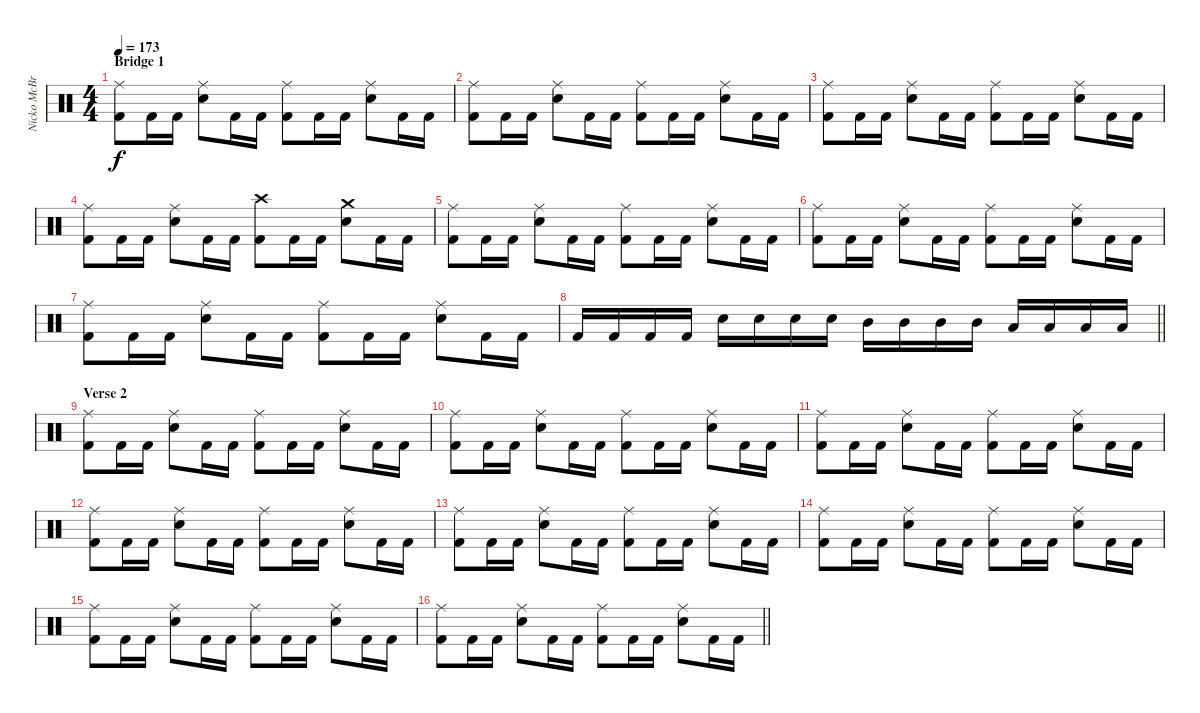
\track ("Nicko McBrain" "Nicko McBr") {instrument percussion}
\staff {score}
\articulation defaults
\ts (4 4)
\section ("" "Bridge 1")
\tempo 173
\clef neutral
\ks c
("Ride (middle)" "Kick (hit) 2").8{dy f} "Kick (hit) 2".16 "Kick (hit) 2".16 ("Ride (middle)" "Electric Snare (hit)").8 "Kick (hit) 2".16 "Kick (hit) 2".16 ("Ride (middle)" "Kick (hit) 2").8 "Kick (hit) 2".16 "Kick (hit) 2".16 ("Ride (middle)" "Electric Snare (hit)").8 "Kick (hit) 2".16 "Kick (hit) 2".16 |
("Ride (middle)" "Kick (hit) 2").8 "Kick (hit) 2".16 "Kick (hit) 2".16 ("Ride (middle)" "Electric Snare (hit)").8 "Kick (hit) 2".16 "Kick (hit) 2".16 ("Ride (middle)" "Kick (hit) 2").8 "Kick (hit) 2".16 "Kick (hit) 2".16 ("Ride (middle)" "Electric Snare (hit)").8 "Kick (hit) 2".16 "Kick (hit) 2".16 |
("Ride (middle)" "Kick (hit) 2").8 "Kick (hit) 2".16 "Kick (hit) 2".16 ("Ride (middle)" "Electric Snare (hit)").8 "Kick (hit) 2".16 "Kick (hit) 2".16 ("Ride (middle)" "Kick (hit) 2").8 "Kick (hit) 2".16 "Kick (hit) 2".16 ("Ride (middle)" "Electric Snare (hit)").8 "Kick (hit) 2".16 "Kick (hit) 2".16 |
("Ride (middle)" "Kick (hit) 2").8 "Kick (hit) 2".16 "Kick (hit) 2".16 ("Ride (middle)" "Electric Snare (hit)").8 "Kick (hit) 2".16 "Kick (hit) 2".16 ("Crash high (hit)" "Kick (hit) 2").8 "Kick (hit) 2".16 "Kick (hit) 2".16 ("Crash medium (hit)" "Electric Snare (hit)").8 "Kick (hit) 2".16 "Kick (hit) 2".16 |
("Ride (middle)" "Kick (hit) 2").8 "Kick (hit) 2".16 "Kick (hit) 2".16 ("Ride (middle)" "Electric Snare (hit)").8 "Kick (hit) 2".16 "Kick (hit) 2".16 ("Ride (middle)" "Kick (hit) 2").8 "Kick (hit) 2".16 "Kick (hit) 2".16 ("Ride (middle)" "Electric Snare (hit)").8 "Kick (hit) 2".16 "Kick (hit) 2".16 |
("Ride (middle)" "Kick (hit) 2").8 "Kick (hit) 2".16 "Kick (hit) 2".16 ("Ride (middle)" "Electric Snare (hit)").8 "Kick (hit) 2".16 "Kick (hit) 2".16 ("Ride (middle)" "Kick (hit) 2").8 "Kick (hit) 2".16 "Kick (hit) 2".16 ("Ride (middle)" "Electric Snare (hit)").8 "Kick (hit) 2".16 "Kick (hit) 2".16 |
("Ride (middle)" "Kick (hit) 2").8 "Kick (hit) 2".16 "Kick (hit) 2".16 ("Ride (middle)" "Electric Snare (hit)").8 "Kick (hit) 2".16 "Kick (hit) 2".16 ("Ride (middle)" "Kick (hit) 2").8 "Kick (hit) 2".16 "Kick (hit) 2".16 ("Ride (middle)" "Electric Snare (hit)").8 "Kick (hit) 2".16 "Kick (hit) 2".16 |
\barLineRight lightlight "Kick (hit) 2".16 "Kick (hit) 2".16 "Kick (hit) 2".16 "Kick (hit) 2".16 "Electric Snare (hit)".16 "Electric Snare (hit)".16 "Electric Snare (hit)".16 "Electric Snare (hit)".16 "Mid Tom (hit)".16 "Mid Tom (hit)".16 "Mid Tom (hit)".16 "Mid Tom (hit)".16 "Low Tom (hit)".16 "Low Tom (hit)".16 "Low Tom (hit)".16 "Low Tom (hit)".16
|
\section ("" "Verse 2")
("Ride (middle)" "Kick (hit) 2").8 "Kick (hit) 2".16 "Kick (hit) 2".16 ("Ride (middle)" "Electric Snare (hit)").8 "Kick (hit) 2".16 "Kick (hit) 2".16 ("Ride (middle)" "Kick (hit) 2").8 "Kick (hit) 2".16 "Kick (hit) 2".16 ("Ride (middle)" "Electric Snare (hit)").8 "Kick (hit) 2".16 "Kick (hit) 2".16 |
("Ride (middle)" "Kick (hit) 2").8 "Kick (hit) 2".16 "Kick (hit) 2".16 ("Ride (middle)" "Electric Snare (hit)").8 "Kick (hit) 2".16 "Kick (hit) 2".16 ("Ride (middle)" "Kick (hit) 2").8 "Kick (hit) 2".16 "Kick (hit) 2".16 ("Ride (middle)" "Electric Snare (hit)").8 "Kick (hit) 2".16 "Kick (hit) 2".16 |
("Ride (middle)" "Kick (hit) 2").8 "Kick (hit) 2".16 "Kick (hit) 2".16 ("Ride (middle)" "Electric Snare (hit)").8 "Kick (hit) 2".16 "Kick (hit) 2".16 ("Ride (middle)" "Kick (hit) 2").8 "Kick (hit) 2".16 "Kick (hit) 2".16 ("Ride (middle)" "Electric Snare (hit)").8 "Kick (hit) 2".16 "Kick (hit) 2".16 |
("Ride (middle)" "Kick (hit) 2").8 "Kick (hit) 2".16 "Kick (hit) 2".16 ("Ride (middle)" "Electric Snare (hit)").8 "Kick (hit) 2".16 "Kick (hit) 2".16 ("Ride (middle)" "Kick (hit) 2").8 "Kick (hit) 2".16 "Kick (hit) 2".16 ("Ride (middle)" "Electric Snare (hit)").8 "Kick (hit) 2".16 "Kick (hit) 2".16 |
("Ride (middle)" "Kick (hit) 2").8 "Kick (hit) 2".16 "Kick (hit) 2".16 ("Ride (middle)" "Electric Snare (hit)").8 "Kick (hit) 2".16 "Kick (hit) 2".16 ("Ride (middle)" "Kick (hit) 2").8 "Kick (hit) 2".16 "Kick (hit) 2".16 ("Ride (middle)" "Electric Snare (hit)").8 "Kick (hit) 2".16 "Kick (hit) 2".16 |
("Ride (middle)" "Kick (hit) 2").8 "Kick (hit) 2".16 "Kick (hit) 2".16 ("Ride (middle)" "Electric Snare (hit)").8 "Kick (hit) 2".16 "Kick (hit) 2".16 ("Ride (middle)" "Kick (hit) 2").8 "Kick (hit) 2".16 "Kick (hit) 2".16 ("Ride (middle)" "Electric Snare (hit)").8 "Kick (hit) 2".16 "Kick (hit) 2".16 |
("Ride (middle)" "Kick (hit) 2").8 "Kick (hit) 2".16 "Kick (hit) 2".16 ("Ride (middle)" "Electric Snare (hit)").8 "Kick (hit) 2".16 "Kick (hit) 2".16 ("Ride (middle)" "Kick (hit) 2").8 "Kick (hit) 2".16 "Kick (hit) 2".16 ("Ride (middle)" "Electric Snare (hit)").8 "Kick (hit) 2".16 "Kick (hit) 2".16 |
\barLineRight lightlight
("Ride (middle)" "Kick (hit) 2").8 "Kick (hit) 2".16 "Kick (hit) 2".16 ("Ride (middle)" "Electric Snare (hit)").8 "Kick (hit) 2".16 "Kick (hit) 2".16 ("Ride (middle)" "Kick (hit) 2").8 "Kick (hit) 2".16 "Kick (hit) 2".16 ("Ride (middle)" "Electric Snare (hit)").8 "Kick (hit) 2".16 "Kick (hit) 2".16
